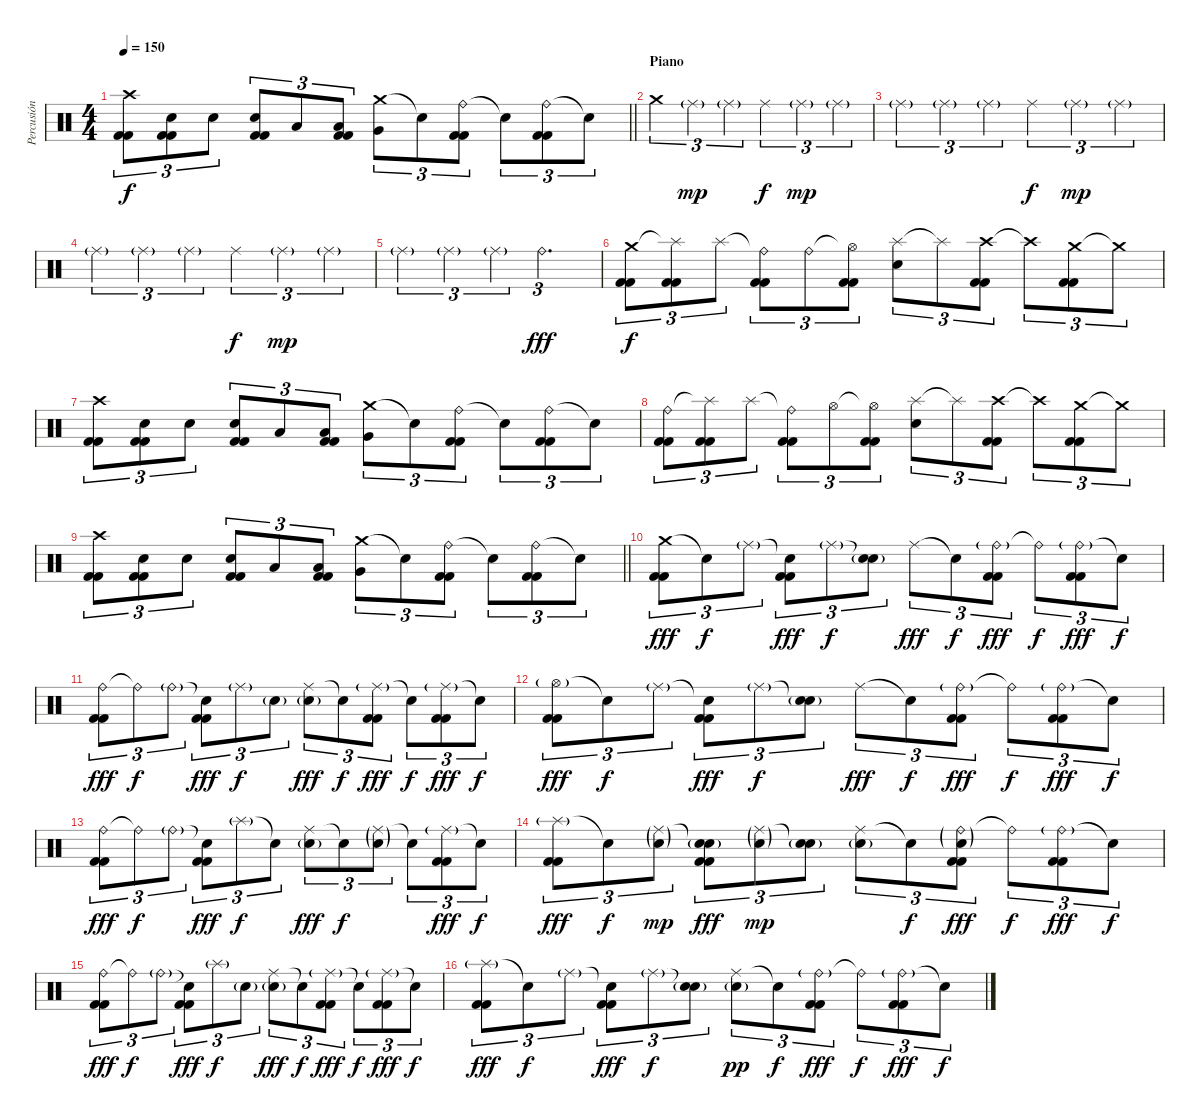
\track ("Percusión" "Percusión") {instrument percussion}
\staff {score}
\articulation defaults
\ts (4 4)
\tempo 150
\clef neutral
\barLineRight lightlight
\ks c
("Crash high (hit)" "Kick (hit) 2" "Kick (hit) 2").8{tu (3 2) dy f} ("Electric Snare (hit)" "Kick (hit) 2" "Kick (hit) 2").8{tu (3 2)} "Electric Snare (hit)".8{tu (3 2)} ("Electric Snare (hit)" "Kick (hit) 2" "Kick (hit) 2").8{tu (3 2)} "Low Tom (hit)".8{tu (3 2)} ("Low Tom (hit)" "Kick (hit) 2" "Kick (hit) 2").8{tu (3 2)} ("Crash medium (hit)" "Very Low Tom (hit)").8{tu (3 2)} "Snare (hit)"{t}.8{tu (3 2)} ("Ride (bell)" "Kick (hit) 2" "Kick (hit) 2").8{tu (3 2)} "Snare (hit)"{t}.8{tu (3 2)} ("Ride (bell)" "Kick (hit) 2" "Kick (hit) 2").8{tu (3 2)} "Snare (hit)"{t}.8{tu (3 2)} |
\section ("" "Piano")
"Crash medium (hit)".4{tu (3 2)} "Ride (middle)"{g}.4{tu (3 2) dy mp} "Ride (middle)"{g}.4{tu (3 2)} "Ride (middle)".4{tu (3 2) dy f} "Ride (middle)"{g}.4{tu (3 2) dy mp} "Ride (middle)"{g}.4{tu (3 2)} |
"Ride (middle)"{g}.4{tu (3 2)} "Ride (middle)"{g}.4{tu (3 2)} "Ride (middle)"{g}.4{tu (3 2)} "Ride (middle)".4{tu (3 2) dy f} "Ride (middle)"{g}.4{tu (3 2) dy mp} "Ride (middle)"{g}.4{tu (3 2)} |
"Ride (middle)"{g}.4{tu (3 2)} "Ride (middle)"{g}.4{tu (3 2)} "Ride (middle)"{g}.4{tu (3 2)} "Ride (middle)".4{tu (3 2) dy f} "Ride (middle)"{g}.4{tu (3 2) dy mp} "Ride (middle)"{g}.4{tu (3 2)} |
"Ride (middle)"{g}.4{tu (3 2)} "Ride (middle)"{g}.4{tu (3 2)} "Ride (middle)"{g}.4{tu (3 2)} "Ride (bell)".2{d tu (3 2) dy fff} |
("Crash medium (hit)" "Kick (hit) 2" "Kick (hit) 2").8{tu (3 2) dy f} ("Splash (hit)"{t} "Kick (hit) 2" "Kick (hit) 2").8{tu (3 2)} "Splash (hit)".8{tu (3 2)} ("Ride (bell)"{t} "Kick (hit) 2" "Kick (hit) 2").8{tu (3 2)} "Ride (bell)".8{tu (3 2)} ("Hi-Hat (open)"{t} "Kick (hit) 2" "Kick (hit) 2").8{tu (3 2)} ("Splash (hit)" "Electric Snare (hit)").8{tu (3 2)} "Splash (hit)"{t}.8{tu (3 2)} ("Crash high (hit)" "Kick (hit) 2" "Kick (hit) 2").8{tu (3 2)} "Crash high (hit)"{t}.8{tu (3 2)} ("Crash medium (hit)" "Kick (hit) 2" "Kick (hit) 2").8{tu (3 2)} "Crash medium (hit)"{t}.8{tu (3 2)} |
("Crash high (hit)" "Kick (hit) 2" "Kick (hit) 2").8{tu (3 2)} ("Electric Snare (hit)" "Kick (hit) 2" "Kick (hit) 2").8{tu (3 2)} "Electric Snare (hit)".8{tu (3 2)} ("Electric Snare (hit)" "Kick (hit) 2" "Kick (hit) 2").8{tu (3 2)} "Low Tom (hit)".8{tu (3 2)} ("Low Tom (hit)" "Kick (hit) 2" "Kick (hit) 2").8{tu (3 2)} ("Crash medium (hit)" "Very Low Tom (hit)").8{tu (3 2)} "Snare (hit)"{t}.8{tu (3 2)} ("Ride (bell)" "Kick (hit) 2" "Kick (hit) 2").8{tu (3 2)} "Snare (hit)"{t}.8{tu (3 2)} ("Ride (bell)" "Kick (hit) 2" "Kick (hit) 2").8{tu (3 2)} "Snare (hit)"{t}.8{tu (3 2)} |
("Ride (bell)" "Kick (hit) 2" "Kick (hit) 2").8{tu (3 2)} ("Splash (hit)"{t} "Kick (hit) 2" "Kick (hit) 2").8{tu (3 2)} "Splash (hit)".8{tu (3 2)} ("Ride (bell)"{t} "Kick (hit) 2" "Kick (hit) 2").8{tu (3 2)} "Hi-Hat (open)".8{tu (3 2)} ("Hi-Hat (open)"{t} "Kick (hit) 2" "Kick (hit) 2").8{tu (3 2)} ("Splash (hit)" "Electric Snare (hit)").8{tu (3 2)} "Splash (hit)"{t}.8{tu (3 2)} ("Crash high (hit)" "Kick (hit) 2" "Kick (hit) 2").8{tu (3 2)} "Crash high (hit)"{t}.8{tu (3 2)} ("Crash medium (hit)" "Kick (hit) 2" "Kick (hit) 2").8{tu (3 2)} "Crash medium (hit)"{t}.8{tu (3 2)} |
\barLineRight lightlight
("Crash high (hit)" "Kick (hit) 2" "Kick (hit) 2").8{tu (3 2)} ("Electric Snare (hit)" "Kick (hit) 2" "Kick (hit) 2").8{tu (3 2)} "Electric Snare (hit)".8{tu (3 2)} ("Electric Snare (hit)" "Kick (hit) 2" "Kick (hit) 2").8{tu (3 2)} "Low Tom (hit)".8{tu (3 2)} ("Low Tom (hit)" "Kick (hit) 2" "Kick (hit) 2").8{tu (3 2)} ("Crash medium (hit)" "Very Low Tom (hit)").8{tu (3 2)} "Snare (hit)"{t}.8{tu (3 2)} ("Ride (bell)" "Kick (hit) 2" "Kick (hit) 2").8{tu (3 2)} "Snare (hit)"{t}.8{tu (3 2)} ("Ride (bell)" "Kick (hit) 2" "Kick (hit) 2").8{tu (3 2)} "Snare (hit)"{t}.8{tu (3 2)} |
("Crash medium (hit)" "Kick (hit) 2" "Kick (hit) 2").8{tu (3 2) dy fff} "Snare (hit)"{t}.8{tu (3 2) dy f} "Ride (middle)"{g}.8{tu (3 2)} ("Snare (hit)"{t} "Kick (hit) 2" "Kick (hit) 2").8{tu (3 2) dy fff} "Ride (middle)"{g}.8{tu (3 2) dy f} ("Snare (hit)"{t} "Snare (hit) 2"{g}).8{tu (3 2)} "Ride (middle)".8{tu (3 2) dy fff} "Snare (hit)"{t}.8{tu (3 2) dy f} ("Ride (bell)"{g} "Kick (hit) 2" "Kick (hit) 2").8{tu (3 2) dy fff} "Ride (bell)"{t}.8{tu (3 2) dy f} ("Ride (bell)"{g} "Kick (hit) 2" "Kick (hit) 2").8{tu (3 2) dy fff} "Snare (hit)"{t}.8{tu (3 2) dy f} |
("Ride (bell)" "Kick (hit) 2" "Kick (hit) 2").8{tu (3 2) dy fff} "Ride (bell)"{t}.8{tu (3 2) dy f} "Ride (bell)"{g}.8{tu (3 2)} ("Snare (hit)"{t} "Kick (hit) 2" "Kick (hit) 2").8{tu (3 2) dy fff} "Ride (middle)"{g}.8{tu (3 2) dy f} "Snare (hit) 2"{g}.8{tu (3 2)} ("Ride (middle)" "Snare (hit) 2"{g}).8{tu (3 2) dy fff} "Snare (hit)"{t}.8{tu (3 2) dy f} ("Ride (middle)"{g} "Kick (hit) 2" "Kick (hit) 2").8{tu (3 2) dy fff} "Snare (hit)"{t}.8{tu (3 2) dy f} ("Ride (middle)"{g} "Kick (hit) 2" "Kick (hit) 2").8{tu (3 2) dy fff} "Snare (hit)"{t}.8{tu (3 2) dy f} |
("Hi-Hat (open)"{g} "Kick (hit) 2" "Kick (hit) 2").8{tu (3 2) dy fff} "Snare (hit)"{t}.8{tu (3 2) dy f} "Ride (middle)"{g}.8{tu (3 2)} ("Snare (hit)"{t} "Kick (hit) 2" "Kick (hit) 2").8{tu (3 2) dy fff} "Ride (middle)"{g}.8{tu (3 2) dy f} ("Snare (hit)"{t} "Snare (hit) 2"{g}).8{tu (3 2)} "Ride (middle)".8{tu (3 2) dy fff} "Snare (hit)"{t}.8{tu (3 2) dy f} ("Ride (bell)"{g} "Kick (hit) 2" "Kick (hit) 2").8{tu (3 2) dy fff} "Ride (bell)"{t}.8{tu (3 2) dy f} ("Ride (bell)"{g} "Kick (hit) 2" "Kick (hit) 2").8{tu (3 2) dy fff} "Snare (hit)"{t}.8{tu (3 2) dy f} |
("Ride (bell)" "Kick (hit) 2" "Kick (hit) 2").8{tu (3 2) dy fff} "Ride (bell)"{t}.8{tu (3 2) dy f} "Ride (bell)"{g}.8{tu (3 2)} ("Snare (hit)"{t} "Kick (hit) 2" "Kick (hit) 2").8{tu (3 2) dy fff} "Splash (hit)"{g}.8{tu (3 2) dy f} "Snare (hit)"{t}.8{tu (3 2)} ("Ride (middle)" "Snare (hit) 2"{g}).8{tu (3 2) dy fff} "Snare (hit)"{t}.8{tu (3 2) dy f} ("Ride (middle)"{g} "Snare (hit) 2"{g}).8{tu (3 2)} "Snare (hit)"{t}.8{tu (3 2)} ("Ride (middle)"{g} "Kick (hit) 2" "Kick (hit) 2").8{tu (3 2) dy fff} "Snare (hit)"{t}.8{tu (3 2) dy f} |
("Splash (hit)"{g} "Kick (hit) 2" "Kick (hit) 2").8{tu (3 2) dy fff} "Snare (hit)"{t}.8{tu (3 2) dy f} ("Ride (middle)"{g} "Electric Snare (hit)"{g}).8{tu (3 2) dy mp} ("Snare (hit)"{t} "Electric Snare (hit)"{g} "Kick (hit) 2" "Kick (hit) 2").8{tu (3 2) dy fff} ("Ride (middle)"{g} "Electric Snare (hit)"{g}).8{tu (3 2) dy mp} ("Snare (hit)"{t} "Electric Snare (hit)"{g}).8{tu (3 2)} ("Ride (middle)" "Electric Snare (hit)"{g}).8{tu (3 2)} "Snare (hit)"{t}.8{tu (3 2) dy f} ("Ride (bell)"{g} "Electric Snare (hit)"{g} "Kick (hit) 2" "Kick (hit) 2").8{tu (3 2) dy fff} "Ride (bell)"{t}.8{tu (3 2) dy f} ("Ride (bell)"{g} "Kick (hit) 2" "Kick (hit) 2").8{tu (3 2) dy fff} "Snare (hit)"{t}.8{tu (3 2) dy f} |
("Ride (bell)" "Kick (hit) 2" "Kick (hit) 2").8{tu (3 2) dy fff} "Ride (bell)"{t}.8{tu (3 2) dy f} "Ride (bell)"{g}.8{tu (3 2)} ("Snare (hit)"{t} "Kick (hit) 2" "Kick (hit) 2").8{tu (3 2) dy fff} "Splash (hit)"{g}.8{tu (3 2) dy f} "Snare (hit) 2"{g}.8{tu (3 2)} ("Ride (middle)" "Snare (hit) 2"{g}).8{tu (3 2) dy fff} "Snare (hit)"{t}.8{tu (3 2) dy f} ("Ride (middle)"{g} "Kick (hit) 2" "Kick (hit) 2").8{tu (3 2) dy fff} "Snare (hit)"{t}.8{tu (3 2) dy f} ("Ride (middle)"{g} "Kick (hit) 2" "Kick (hit) 2").8{tu (3 2) dy fff} "Snare (hit)"{t}.8{tu (3 2) dy f} |
("Splash (hit)"{g} "Kick (hit) 2" "Kick (hit) 2").8{tu (3 2) dy fff} "Snare (hit)"{t}.8{tu (3 2) dy f} "Ride (middle)"{g}.8{tu (3 2)} ("Snare (hit)"{t} "Kick (hit) 2" "Kick (hit) 2").8{tu (3 2) dy fff} "Ride (middle)"{g}.8{tu (3 2) dy f} ("Snare (hit)"{t} "Snare (hit) 2"{g}).8{tu (3 2)} ("Ride (middle)" "Snare (hit) 2"{g}).8{tu (3 2) dy pp} "Snare (hit)"{t}.8{tu (3 2) dy f} ("Ride (bell)"{g} "Kick (hit) 2" "Kick (hit) 2").8{tu (3 2) dy fff} "Ride (bell)"{t}.8{tu (3 2) dy f} ("Ride (bell)"{g} "Kick (hit) 2" "Kick (hit) 2").8{tu (3 2) dy fff} "Snare (hit)"{t}.8{tu (3 2) dy f}
